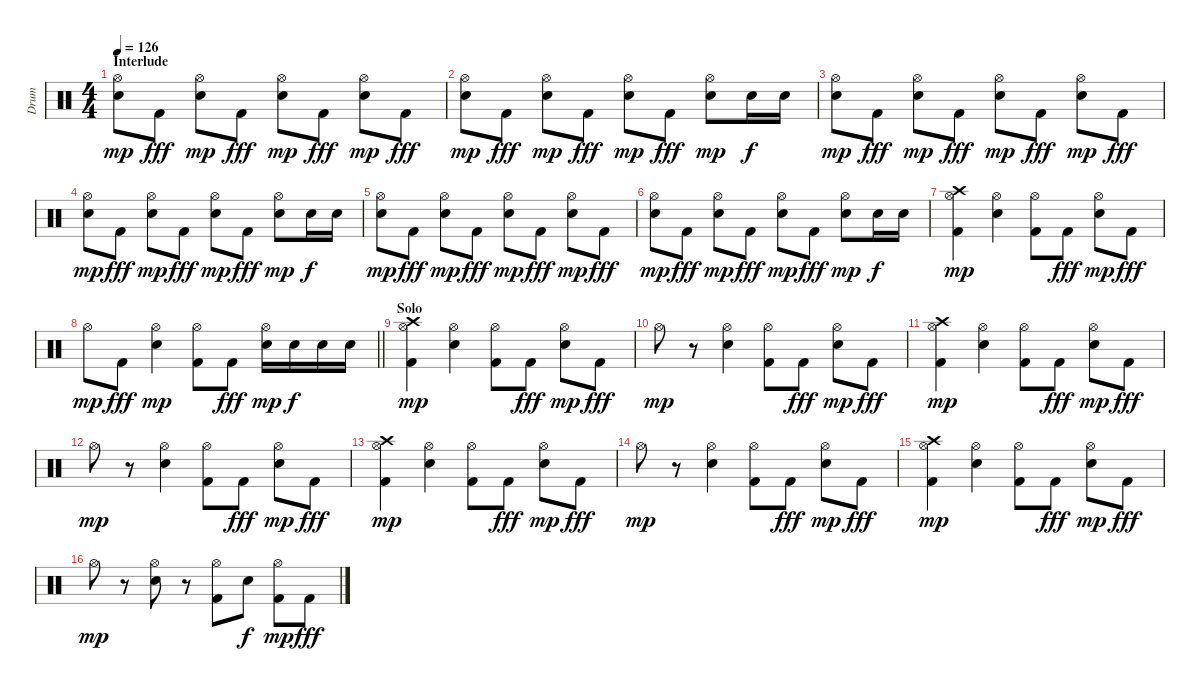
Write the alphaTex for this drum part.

\track ("Drum" "Drum") {instrument percussion}
\staff {score}
\articulation defaults
\ts (4 4)
\section ("" "Interlude")
\tempo 126
\clef neutral
\ks c
("Electric Snare (hit)" "Hi-Hat (open)").8{dy mp} "Kick (hit) 2".8{dy fff} ("Electric Snare (hit)" "Hi-Hat (open)").8{dy mp} "Kick (hit) 2".8{dy fff} ("Electric Snare (hit)" "Hi-Hat (open)").8{dy mp} "Kick (hit) 2".8{dy fff} ("Electric Snare (hit)" "Hi-Hat (open)").8{dy mp} "Kick (hit) 2".8{dy fff} |
("Electric Snare (hit)" "Hi-Hat (open)").8{dy mp} "Kick (hit) 2".8{dy fff} ("Electric Snare (hit)" "Hi-Hat (open)").8{dy mp} "Kick (hit) 2".8{dy fff} ("Electric Snare (hit)" "Hi-Hat (open)").8{dy mp} "Kick (hit) 2".8{dy fff} ("Electric Snare (hit)" "Hi-Hat (open)").8{dy mp} "Electric Snare (hit)".16{dy f} "Electric Snare (hit)".16 |
("Electric Snare (hit)" "Hi-Hat (open)").8{dy mp} "Kick (hit) 2".8{dy fff} ("Electric Snare (hit)" "Hi-Hat (open)").8{dy mp} "Kick (hit) 2".8{dy fff} ("Electric Snare (hit)" "Hi-Hat (open)").8{dy mp} "Kick (hit) 2".8{dy fff} ("Electric Snare (hit)" "Hi-Hat (open)").8{dy mp} "Kick (hit) 2".8{dy fff} |
("Electric Snare (hit)" "Hi-Hat (open)").8{dy mp} "Kick (hit) 2".8{dy fff} ("Electric Snare (hit)" "Hi-Hat (open)").8{dy mp} "Kick (hit) 2".8{dy fff} ("Electric Snare (hit)" "Hi-Hat (open)").8{dy mp} "Kick (hit) 2".8{dy fff} ("Electric Snare (hit)" "Hi-Hat (open)").8{dy mp} "Electric Snare (hit)".16{dy f} "Electric Snare (hit)".16 |
("Electric Snare (hit)" "Hi-Hat (open)").8{dy mp} "Kick (hit) 2".8{dy fff} ("Electric Snare (hit)" "Hi-Hat (open)").8{dy mp} "Kick (hit) 2".8{dy fff} ("Electric Snare (hit)" "Hi-Hat (open)").8{dy mp} "Kick (hit) 2".8{dy fff} ("Electric Snare (hit)" "Hi-Hat (open)").8{dy mp} "Kick (hit) 2".8{dy fff} |
("Electric Snare (hit)" "Hi-Hat (open)").8{dy mp} "Kick (hit) 2".8{dy fff} ("Electric Snare (hit)" "Hi-Hat (open)").8{dy mp} "Kick (hit) 2".8{dy fff} ("Electric Snare (hit)" "Hi-Hat (open)").8{dy mp} "Kick (hit) 2".8{dy fff} ("Electric Snare (hit)" "Hi-Hat (open)").8{dy mp} "Electric Snare (hit)".16{dy f} "Electric Snare (hit)".16 |
("Kick (hit) 2" "Hi-Hat (open)" "Crash high (hit)").4{dy mp} ("Electric Snare (hit)" "Hi-Hat (open)").4 ("Kick (hit) 2" "Hi-Hat (open)").8 "Kick (hit) 2".8{dy fff} ("Electric Snare (hit)" "Hi-Hat (open)").8{dy mp} "Kick (hit) 2".8{dy fff} |
\barLineRight lightlight "Hi-Hat (open)".8{dy mp} "Kick (hit) 2".8{dy fff}
("Electric Snare (hit)" "Hi-Hat (open)").4{dy mp} ("Kick (hit) 2" "Hi-Hat (open)").8 "Kick (hit) 2".8{dy fff} ("Electric Snare (hit)" "Hi-Hat (open)").16{dy mp} "Electric Snare (hit)".16{dy f} "Electric Snare (hit)".16 "Electric Snare (hit)".16 |
\section ("" "Solo")
("Kick (hit) 2" "Hi-Hat (open)" "Crash high (hit)").4{dy mp} ("Electric Snare (hit)" "Hi-Hat (open)").4 ("Kick (hit) 2" "Hi-Hat (open)").8 "Kick (hit) 2".8{dy fff} ("Electric Snare (hit)" "Hi-Hat (open)").8{dy mp} "Kick (hit) 2".8{dy fff} |
"Hi-Hat (open)".8{dy mp} r.8 ("Electric Snare (hit)" "Hi-Hat (open)").4 ("Kick (hit) 2" "Hi-Hat (open)").8 "Kick (hit) 2".8{dy fff} ("Electric Snare (hit)" "Hi-Hat (open)").8{dy mp} "Kick (hit) 2".8{dy fff} |
("Kick (hit) 2" "Hi-Hat (open)" "Crash high (hit)").4{dy mp} ("Electric Snare (hit)" "Hi-Hat (open)").4 ("Kick (hit) 2" "Hi-Hat (open)").8 "Kick (hit) 2".8{dy fff} ("Electric Snare (hit)" "Hi-Hat (open)").8{dy mp} "Kick (hit) 2".8{dy fff} |
"Hi-Hat (open)".8{dy mp} r.8 ("Electric Snare (hit)" "Hi-Hat (open)").4 ("Kick (hit) 2" "Hi-Hat (open)").8 "Kick (hit) 2".8{dy fff} ("Electric Snare (hit)" "Hi-Hat (open)").8{dy mp} "Kick (hit) 2".8{dy fff} |
("Kick (hit) 2" "Hi-Hat (open)" "Crash high (hit)").4{dy mp} ("Electric Snare (hit)" "Hi-Hat (open)").4 ("Kick (hit) 2" "Hi-Hat (open)").8 "Kick (hit) 2".8{dy fff} ("Electric Snare (hit)" "Hi-Hat (open)").8{dy mp} "Kick (hit) 2".8{dy fff} |
"Hi-Hat (open)".8{dy mp} r.8 ("Electric Snare (hit)" "Hi-Hat (open)").4 ("Kick (hit) 2" "Hi-Hat (open)").8 "Kick (hit) 2".8{dy fff} ("Electric Snare (hit)" "Hi-Hat (open)").8{dy mp} "Kick (hit) 2".8{dy fff} |
("Kick (hit) 2" "Hi-Hat (open)" "Crash high (hit)").4{dy mp} ("Electric Snare (hit)" "Hi-Hat (open)").4 ("Kick (hit) 2" "Hi-Hat (open)").8 "Kick (hit) 2".8{dy fff} ("Electric Snare (hit)" "Hi-Hat (open)").8{dy mp} "Kick (hit) 2".8{dy fff} |
"Hi-Hat (open)".8{dy mp} r.8 ("Electric Snare (hit)" "Hi-Hat (open)").8 r.8 ("Kick (hit) 2" "Hi-Hat (open)").8 "Electric Snare (hit)".8{dy f} ("Kick (hit) 2" "Hi-Hat (open)").8{dy mp} "Kick (hit) 2".8{dy fff}
